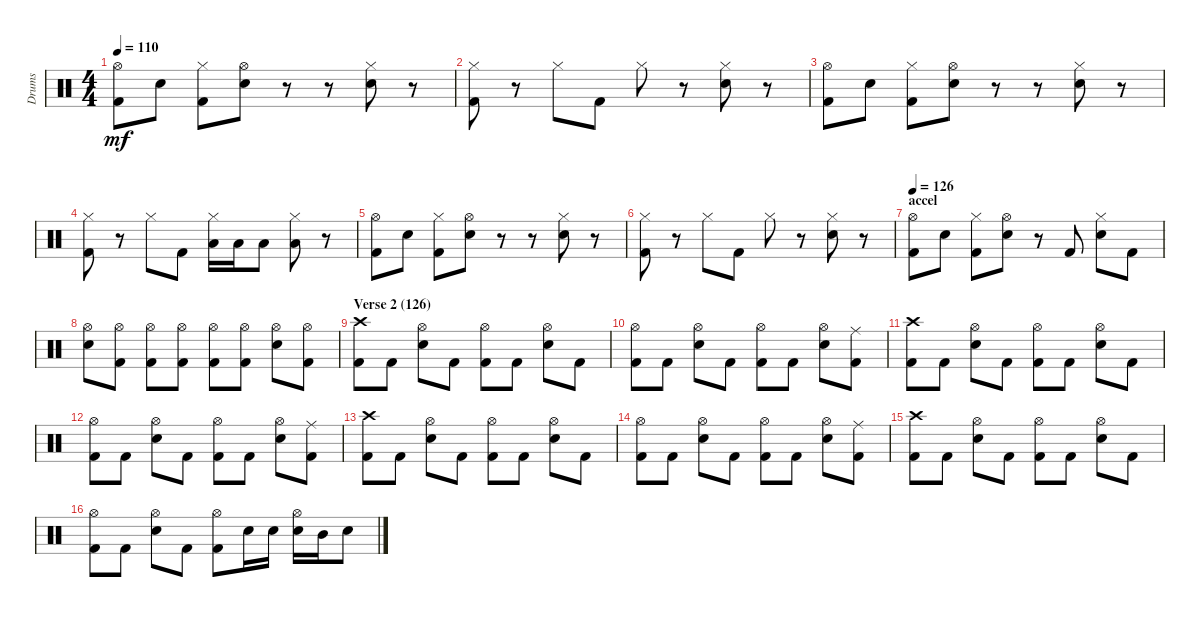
\track ("Drums" "Drums") {instrument percussion}
\staff {score}
\articulation defaults
\ts (4 4)
\tempo 110
\clef neutral
\ks c
("Hi-Hat (open)" "Kick (hit) 2").8{dy mf} "Electric Snare (hit)".8 ("Hi-Hat (closed)" "Kick (hit) 2").8 ("Hi-Hat (open)" "Electric Snare (hit)").8 r.8 r.8 ("Hi-Hat (closed)" "Electric Snare (hit)").8 r.8 |
("Hi-Hat (closed)" "Kick (hit) 2").8 r.8 "Hi-Hat (closed)".8 "Kick (hit) 2".8 "Hi-Hat (closed)".8 r.8 ("Hi-Hat (closed)" "Electric Snare (hit)").8 r.8 |
("Hi-Hat (open)" "Kick (hit) 2").8 "Electric Snare (hit)".8 ("Hi-Hat (closed)" "Kick (hit) 2").8 ("Hi-Hat (open)" "Electric Snare (hit)").8 r.8 r.8 ("Hi-Hat (closed)" "Electric Snare (hit)").8 r.8 |
("Hi-Hat (closed)" "Kick (hit) 2").8 r.8 "Hi-Hat (closed)".8 "Kick (hit) 2".8 ("Hi-Hat (closed)" "Low Tom (hit)").16 "Low Tom (hit)".16 "Low Tom (hit)".8 ("Hi-Hat (closed)" "Low Tom (hit)").8 r.8 |
("Hi-Hat (open)" "Kick (hit) 2").8 "Electric Snare (hit)".8 ("Hi-Hat (closed)" "Kick (hit) 2").8 ("Hi-Hat (open)" "Electric Snare (hit)").8 r.8 r.8 ("Hi-Hat (closed)" "Electric Snare (hit)").8 r.8 |
("Hi-Hat (closed)" "Kick (hit) 2").8 r.8 "Hi-Hat (closed)".8 "Kick (hit) 2".8 "Hi-Hat (closed)".8 r.8 ("Hi-Hat (closed)" "Electric Snare (hit)").8 r.8 |
\section ("" "accel")
\tempo 126
("Hi-Hat (open)" "Kick (hit) 2").8 "Electric Snare (hit)".8 ("Hi-Hat (closed)" "Kick (hit) 2").8 ("Hi-Hat (open)" "Electric Snare (hit)").8 r.8 "Kick (hit) 2".8 ("Hi-Hat (closed)" "Electric Snare (hit)").8 "Kick (hit) 2".8 |
("Hi-Hat (open)" "Electric Snare (hit)").8 ("Hi-Hat (open)" "Kick (hit) 2").8 ("Hi-Hat (open)" "Kick (hit) 2").8 ("Hi-Hat (open)" "Kick (hit) 2").8 ("Hi-Hat (open)" "Kick (hit) 2").8 ("Hi-Hat (open)" "Kick (hit) 2").8 ("Hi-Hat (open)" "Electric Snare (hit)").8 ("Hi-Hat (open)" "Kick (hit) 2").8 |
\section ("" "Verse 2 (126)")
("Crash high (hit)" "Kick (hit) 2").8 "Kick (hit) 2".8 ("Hi-Hat (open)" "Electric Snare (hit)").8 "Kick (hit) 2".8 ("Hi-Hat (open)" "Kick (hit) 2").8 "Kick (hit) 2".8 ("Hi-Hat (open)" "Electric Snare (hit)").8 "Kick (hit) 2".8 |
("Hi-Hat (open)" "Kick (hit) 2").8 "Kick (hit) 2".8 ("Hi-Hat (open)" "Electric Snare (hit)").8 "Kick (hit) 2".8 ("Hi-Hat (open)" "Kick (hit) 2").8 "Kick (hit) 2".8 ("Hi-Hat (open)" "Electric Snare (hit)").8 ("Ride (middle)" "Kick (hit) 2").8 |
("Crash high (hit)" "Kick (hit) 2").8 "Kick (hit) 2".8 ("Hi-Hat (open)" "Electric Snare (hit)").8 "Kick (hit) 2".8 ("Hi-Hat (open)" "Kick (hit) 2").8 "Kick (hit) 2".8 ("Hi-Hat (open)" "Electric Snare (hit)").8 "Kick (hit) 2".8 |
("Hi-Hat (open)" "Kick (hit) 2").8 "Kick (hit) 2".8 ("Hi-Hat (open)" "Electric Snare (hit)").8 "Kick (hit) 2".8 ("Hi-Hat (open)" "Kick (hit) 2").8 "Kick (hit) 2".8 ("Hi-Hat (open)" "Electric Snare (hit)").8 ("Ride (middle)" "Kick (hit) 2").8 |
("Crash high (hit)" "Kick (hit) 2").8 "Kick (hit) 2".8 ("Hi-Hat (open)" "Electric Snare (hit)").8 "Kick (hit) 2".8 ("Hi-Hat (open)" "Kick (hit) 2").8 "Kick (hit) 2".8 ("Hi-Hat (open)" "Electric Snare (hit)").8 "Kick (hit) 2".8 |
("Hi-Hat (open)" "Kick (hit) 2").8 "Kick (hit) 2".8 ("Hi-Hat (open)" "Electric Snare (hit)").8 "Kick (hit) 2".8 ("Hi-Hat (open)" "Kick (hit) 2").8 "Kick (hit) 2".8 ("Hi-Hat (open)" "Electric Snare (hit)").8 ("Ride (middle)" "Kick (hit) 2").8 |
("Crash high (hit)" "Kick (hit) 2").8 "Kick (hit) 2".8 ("Hi-Hat (open)" "Electric Snare (hit)").8 "Kick (hit) 2".8 ("Hi-Hat (open)" "Kick (hit) 2").8 "Kick (hit) 2".8 ("Hi-Hat (open)" "Electric Snare (hit)").8 "Kick (hit) 2".8 |
("Hi-Hat (open)" "Kick (hit) 2").8 "Kick (hit) 2".8 ("Hi-Hat (open)" "Electric Snare (hit)").8 "Kick (hit) 2".8 ("Hi-Hat (open)" "Kick (hit) 2").8 "Electric Snare (hit)".16 "Electric Snare (hit)".16 ("Hi-Hat (open)" "Electric Snare (hit)").16 "Mid Tom (hit)".16 "Electric Snare (hit)".8
